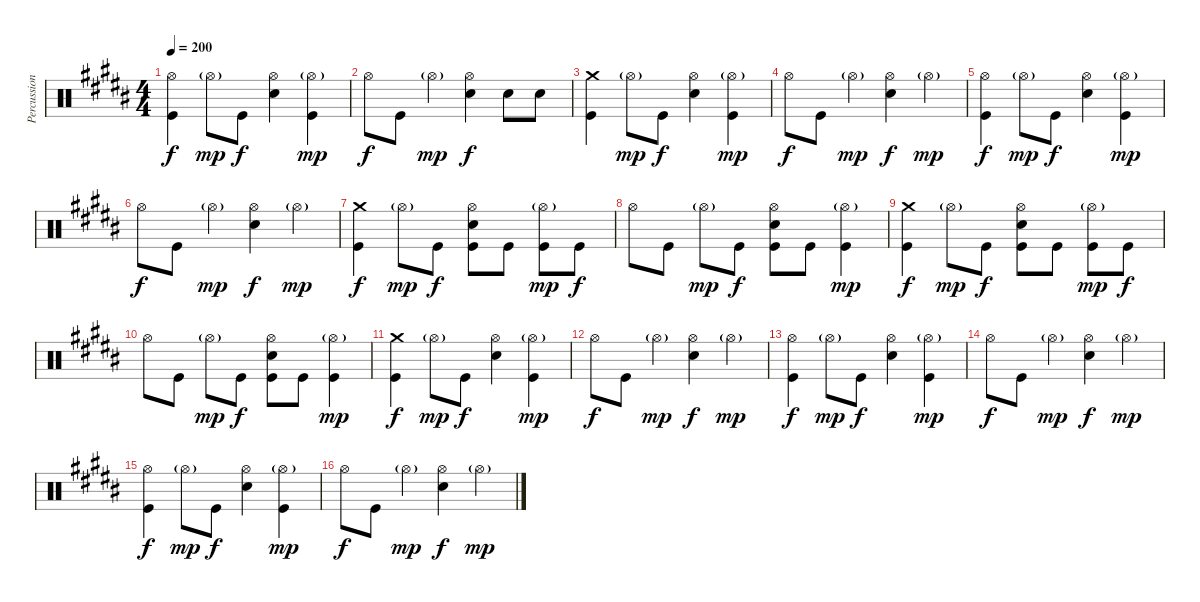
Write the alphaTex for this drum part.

\track ("Percussion" "Percussion") {instrument percussion}
\staff {score}
\articulation defaults
\ts (4 4)
\tempo 200
\clef neutral
\ks b
("Hi-Hat (open)" "Kick (hit)").4{dy f} "Hi-Hat (open)"{g}.8{dy mp} "Kick (hit)".8{dy f} ("Hi-Hat (open)" "Electric Snare (hit)").4 ("Hi-Hat (open)"{g} "Kick (hit)").4{dy mp} |
"Hi-Hat (open)".8{dy f} "Kick (hit)".8 "Hi-Hat (open)"{g}.4{dy mp} ("Hi-Hat (open)" "Electric Snare (hit)").4{dy f} "Electric Snare (hit)".8 "Electric Snare (hit)".8 |
("Crash medium (hit)" "Kick (hit)").4 "Hi-Hat (open)"{g}.8{dy mp} "Kick (hit)".8{dy f} ("Hi-Hat (open)" "Electric Snare (hit)").4 ("Hi-Hat (open)"{g} "Kick (hit)").4{dy mp} |
"Hi-Hat (open)".8{dy f} "Kick (hit)".8 "Hi-Hat (open)"{g}.4{dy mp} ("Hi-Hat (open)" "Electric Snare (hit)").4{dy f} "Hi-Hat (open)"{g}.4{dy mp} |
("Hi-Hat (open)" "Kick (hit)").4{dy f} "Hi-Hat (open)"{g}.8{dy mp} "Kick (hit)".8{dy f} ("Hi-Hat (open)" "Electric Snare (hit)").4 ("Hi-Hat (open)"{g} "Kick (hit)").4{dy mp} |
"Hi-Hat (open)".8{dy f} "Kick (hit)".8 "Hi-Hat (open)"{g}.4{dy mp} ("Hi-Hat (open)" "Electric Snare (hit)").4{dy f} "Hi-Hat (open)"{g}.4{dy mp} |
("Crash medium (hit)" "Kick (hit)").4{dy f} "Hi-Hat (open)"{g}.8{dy mp} "Kick (hit)".8{dy f} ("Hi-Hat (open)" "Electric Snare (hit)" "Kick (hit)").8 "Kick (hit)".8 ("Hi-Hat (open)"{g} "Kick (hit)").8{dy mp} "Kick (hit)".8{dy f} |
"Hi-Hat (open)".8 "Kick (hit)".8 "Hi-Hat (open)"{g}.8{dy mp} "Kick (hit)".8{dy f} ("Hi-Hat (open)" "Electric Snare (hit)" "Kick (hit)").8 "Kick (hit)".8 ("Hi-Hat (open)"{g} "Kick (hit)").4{dy mp} |
("Crash medium (hit)" "Kick (hit)").4{dy f} "Hi-Hat (open)"{g}.8{dy mp} "Kick (hit)".8{dy f} ("Hi-Hat (open)" "Electric Snare (hit)" "Kick (hit)").8 "Kick (hit)".8 ("Hi-Hat (open)"{g} "Kick (hit)").8{dy mp} "Kick (hit)".8{dy f} |
"Hi-Hat (open)".8 "Kick (hit)".8 "Hi-Hat (open)"{g}.8{dy mp} "Kick (hit)".8{dy f} ("Hi-Hat (open)" "Electric Snare (hit)" "Kick (hit)").8 "Kick (hit)".8 ("Hi-Hat (open)"{g} "Kick (hit)").4{dy mp} |
("Crash medium (hit)" "Kick (hit)").4{dy f} "Hi-Hat (open)"{g}.8{dy mp} "Kick (hit)".8{dy f} ("Hi-Hat (open)" "Electric Snare (hit)").4 ("Hi-Hat (open)"{g} "Kick (hit)").4{dy mp} |
"Hi-Hat (open)".8{dy f} "Kick (hit)".8 "Hi-Hat (open)"{g}.4{dy mp} ("Hi-Hat (open)" "Electric Snare (hit)").4{dy f} "Hi-Hat (open)"{g}.4{dy mp} |
("Hi-Hat (open)" "Kick (hit)").4{dy f} "Hi-Hat (open)"{g}.8{dy mp} "Kick (hit)".8{dy f} ("Hi-Hat (open)" "Electric Snare (hit)").4 ("Hi-Hat (open)"{g} "Kick (hit)").4{dy mp} |
"Hi-Hat (open)".8{dy f} "Kick (hit)".8 "Hi-Hat (open)"{g}.4{dy mp} ("Hi-Hat (open)" "Electric Snare (hit)").4{dy f} "Hi-Hat (open)"{g}.4{dy mp} |
("Hi-Hat (open)" "Kick (hit)").4{dy f} "Hi-Hat (open)"{g}.8{dy mp} "Kick (hit)".8{dy f} ("Hi-Hat (open)" "Electric Snare (hit)").4 ("Hi-Hat (open)"{g} "Kick (hit)").4{dy mp} |
"Hi-Hat (open)".8{dy f} "Kick (hit)".8 "Hi-Hat (open)"{g}.4{dy mp} ("Hi-Hat (open)" "Electric Snare (hit)").4{dy f} "Hi-Hat (open)"{g}.4{dy mp}
